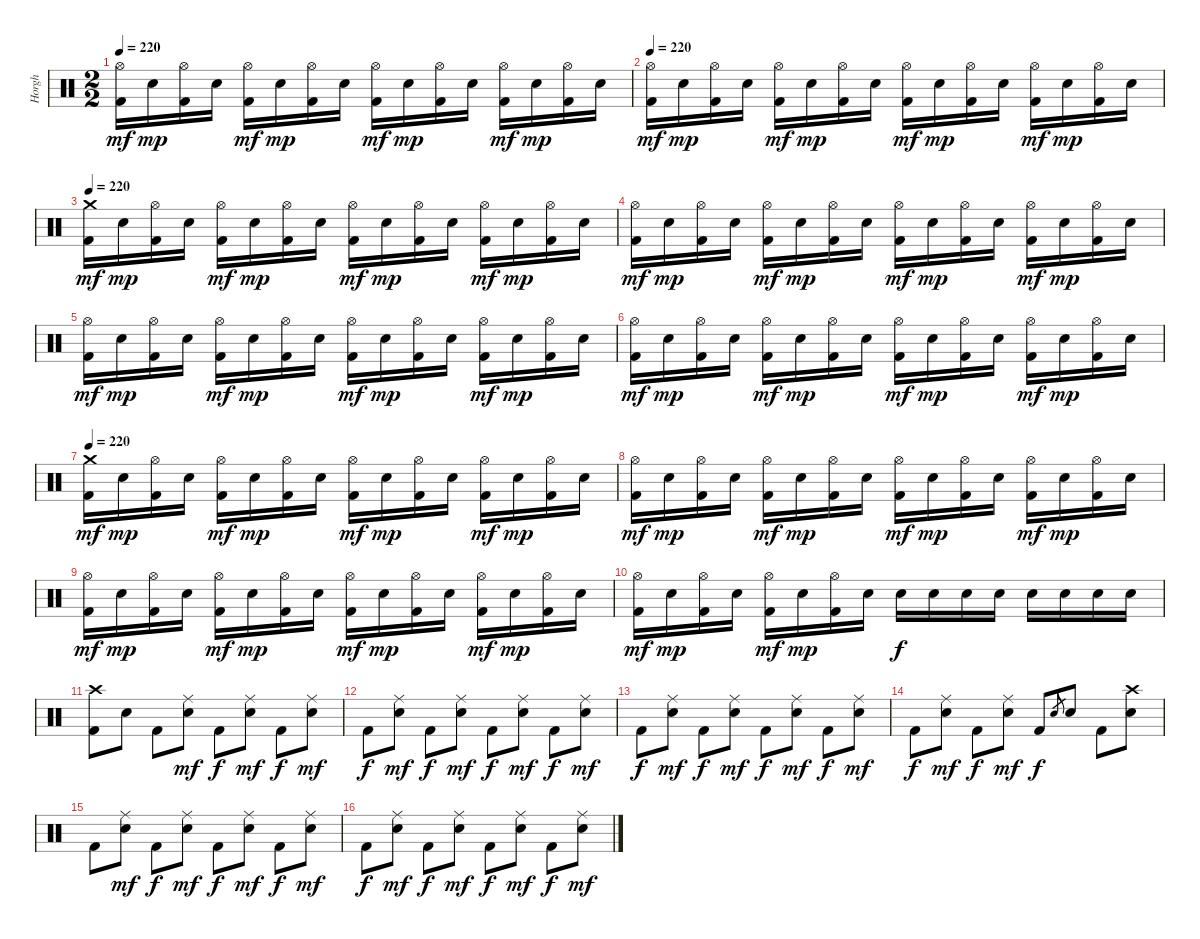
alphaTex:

\track ("Horgh" "Horgh") {instrument percussion}
\staff {score}
\articulation defaults
\ts (2 2)
\tempo 220
\clef neutral
\ks c
("Hi-Hat (open)" "Kick (hit) 2").16{dy mf} "Electric Snare (hit)".16{dy mp} ("Hi-Hat (open)" "Kick (hit) 2").16 "Electric Snare (hit)".16 ("Hi-Hat (open)" "Kick (hit) 2").16{dy mf} "Electric Snare (hit)".16{dy mp} ("Hi-Hat (open)" "Kick (hit) 2").16 "Electric Snare (hit)".16 ("Hi-Hat (open)" "Kick (hit) 2").16{dy mf} "Electric Snare (hit)".16{dy mp} ("Hi-Hat (open)" "Kick (hit) 2").16 "Electric Snare (hit)".16 ("Hi-Hat (open)" "Kick (hit) 2").16{dy mf} "Electric Snare (hit)".16{dy mp} ("Hi-Hat (open)" "Kick (hit) 2").16 "Electric Snare (hit)".16 |
\tempo 220
("Hi-Hat (open)" "Kick (hit) 2").16{dy mf} "Electric Snare (hit)".16{dy mp} ("Hi-Hat (open)" "Kick (hit) 2").16 "Electric Snare (hit)".16 ("Hi-Hat (open)" "Kick (hit) 2").16{dy mf} "Electric Snare (hit)".16{dy mp} ("Hi-Hat (open)" "Kick (hit) 2").16 "Electric Snare (hit)".16 ("Hi-Hat (open)" "Kick (hit) 2").16{dy mf} "Electric Snare (hit)".16{dy mp} ("Hi-Hat (open)" "Kick (hit) 2").16 "Electric Snare (hit)".16 ("Hi-Hat (open)" "Kick (hit) 2").16{dy mf} "Electric Snare (hit)".16{dy mp} ("Hi-Hat (open)" "Kick (hit) 2").16 "Electric Snare (hit)".16 |
\tempo 220
("Crash medium (hit)" "Kick (hit) 2").16{dy mf} "Electric Snare (hit)".16{dy mp} ("Hi-Hat (open)" "Kick (hit) 2").16 "Electric Snare (hit)".16 ("Hi-Hat (open)" "Kick (hit) 2").16{dy mf} "Electric Snare (hit)".16{dy mp} ("Hi-Hat (open)" "Kick (hit) 2").16 "Electric Snare (hit)".16 ("Hi-Hat (open)" "Kick (hit) 2").16{dy mf} "Electric Snare (hit)".16{dy mp} ("Hi-Hat (open)" "Kick (hit) 2").16 "Electric Snare (hit)".16 ("Hi-Hat (open)" "Kick (hit) 2").16{dy mf} "Electric Snare (hit)".16{dy mp} ("Hi-Hat (open)" "Kick (hit) 2").16 "Electric Snare (hit)".16 |
("Hi-Hat (open)" "Kick (hit) 2").16{dy mf} "Electric Snare (hit)".16{dy mp} ("Hi-Hat (open)" "Kick (hit) 2").16 "Electric Snare (hit)".16 ("Hi-Hat (open)" "Kick (hit) 2").16{dy mf} "Electric Snare (hit)".16{dy mp} ("Hi-Hat (open)" "Kick (hit) 2").16 "Electric Snare (hit)".16 ("Hi-Hat (open)" "Kick (hit) 2").16{dy mf} "Electric Snare (hit)".16{dy mp} ("Hi-Hat (open)" "Kick (hit) 2").16 "Electric Snare (hit)".16 ("Hi-Hat (open)" "Kick (hit) 2").16{dy mf} "Electric Snare (hit)".16{dy mp} ("Hi-Hat (open)" "Kick (hit) 2").16 "Electric Snare (hit)".16 |
("Hi-Hat (open)" "Kick (hit) 2").16{dy mf} "Electric Snare (hit)".16{dy mp} ("Hi-Hat (open)" "Kick (hit) 2").16 "Electric Snare (hit)".16 ("Hi-Hat (open)" "Kick (hit) 2").16{dy mf} "Electric Snare (hit)".16{dy mp} ("Hi-Hat (open)" "Kick (hit) 2").16 "Electric Snare (hit)".16 ("Hi-Hat (open)" "Kick (hit) 2").16{dy mf} "Electric Snare (hit)".16{dy mp} ("Hi-Hat (open)" "Kick (hit) 2").16 "Electric Snare (hit)".16 ("Hi-Hat (open)" "Kick (hit) 2").16{dy mf} "Electric Snare (hit)".16{dy mp} ("Hi-Hat (open)" "Kick (hit) 2").16 "Electric Snare (hit)".16 |
("Hi-Hat (open)" "Kick (hit) 2").16{dy mf} "Electric Snare (hit)".16{dy mp} ("Hi-Hat (open)" "Kick (hit) 2").16 "Electric Snare (hit)".16 ("Hi-Hat (open)" "Kick (hit) 2").16{dy mf} "Electric Snare (hit)".16{dy mp} ("Hi-Hat (open)" "Kick (hit) 2").16 "Electric Snare (hit)".16 ("Hi-Hat (open)" "Kick (hit) 2").16{dy mf} "Electric Snare (hit)".16{dy mp} ("Hi-Hat (open)" "Kick (hit) 2").16 "Electric Snare (hit)".16 ("Hi-Hat (open)" "Kick (hit) 2").16{dy mf} "Electric Snare (hit)".16{dy mp} ("Hi-Hat (open)" "Kick (hit) 2").16 "Electric Snare (hit)".16 |
\tempo 220
("Crash medium (hit)" "Kick (hit) 2").16{dy mf} "Electric Snare (hit)".16{dy mp} ("Hi-Hat (open)" "Kick (hit) 2").16 "Electric Snare (hit)".16 ("Hi-Hat (open)" "Kick (hit) 2").16{dy mf} "Electric Snare (hit)".16{dy mp} ("Hi-Hat (open)" "Kick (hit) 2").16 "Electric Snare (hit)".16 ("Hi-Hat (open)" "Kick (hit) 2").16{dy mf} "Electric Snare (hit)".16{dy mp} ("Hi-Hat (open)" "Kick (hit) 2").16 "Electric Snare (hit)".16 ("Hi-Hat (open)" "Kick (hit) 2").16{dy mf} "Electric Snare (hit)".16{dy mp} ("Hi-Hat (open)" "Kick (hit) 2").16 "Electric Snare (hit)".16 |
("Hi-Hat (open)" "Kick (hit) 2").16{dy mf} "Electric Snare (hit)".16{dy mp} ("Hi-Hat (open)" "Kick (hit) 2").16 "Electric Snare (hit)".16 ("Hi-Hat (open)" "Kick (hit) 2").16{dy mf} "Electric Snare (hit)".16{dy mp} ("Hi-Hat (open)" "Kick (hit) 2").16 "Electric Snare (hit)".16 ("Hi-Hat (open)" "Kick (hit) 2").16{dy mf} "Electric Snare (hit)".16{dy mp} ("Hi-Hat (open)" "Kick (hit) 2").16 "Electric Snare (hit)".16 ("Hi-Hat (open)" "Kick (hit) 2").16{dy mf} "Electric Snare (hit)".16{dy mp} ("Hi-Hat (open)" "Kick (hit) 2").16 "Electric Snare (hit)".16 |
("Hi-Hat (open)" "Kick (hit) 2").16{dy mf} "Electric Snare (hit)".16{dy mp} ("Hi-Hat (open)" "Kick (hit) 2").16 "Electric Snare (hit)".16 ("Hi-Hat (open)" "Kick (hit) 2").16{dy mf} "Electric Snare (hit)".16{dy mp} ("Hi-Hat (open)" "Kick (hit) 2").16 "Electric Snare (hit)".16 ("Hi-Hat (open)" "Kick (hit) 2").16{dy mf} "Electric Snare (hit)".16{dy mp} ("Hi-Hat (open)" "Kick (hit) 2").16 "Electric Snare (hit)".16 ("Hi-Hat (open)" "Kick (hit) 2").16{dy mf} "Electric Snare (hit)".16{dy mp} ("Hi-Hat (open)" "Kick (hit) 2").16 "Electric Snare (hit)".16 |
("Hi-Hat (open)" "Kick (hit) 2").16{dy mf} "Electric Snare (hit)".16{dy mp} ("Hi-Hat (open)" "Kick (hit) 2").16 "Electric Snare (hit)".16 ("Hi-Hat (open)" "Kick (hit) 2").16{dy mf} "Electric Snare (hit)".16{dy mp} ("Hi-Hat (open)" "Kick (hit) 2").16 "Electric Snare (hit)".16 "Electric Snare (hit)".16{dy f} "Electric Snare (hit)".16 "Electric Snare (hit)".16 "Electric Snare (hit)".16 "Electric Snare (hit)".16 "Electric Snare (hit)".16 "Electric Snare (hit)".16 "Electric Snare (hit)".16 |
("Crash high (hit)" "Kick (hit) 2").8 "Electric Snare (hit)".8 "Kick (hit) 2".8 ("Ride (middle)" "Electric Snare (hit)").8{dy mf} "Kick (hit) 2".8{dy f} ("Ride (middle)" "Electric Snare (hit)").8{dy mf} "Kick (hit) 2".8{dy f} ("Ride (middle)" "Electric Snare (hit)").8{dy mf} |
"Kick (hit) 2".8{dy f} ("Ride (middle)" "Electric Snare (hit)").8{dy mf} "Kick (hit) 2".8{dy f} ("Ride (middle)" "Electric Snare (hit)").8{dy mf} "Kick (hit) 2".8{dy f} ("Ride (middle)" "Electric Snare (hit)").8{dy mf} "Kick (hit) 2".8{dy f} ("Ride (middle)" "Electric Snare (hit)").8{dy mf} |
"Kick (hit) 2".8{dy f} ("Ride (middle)" "Electric Snare (hit)").8{dy mf} "Kick (hit) 2".8{dy f} ("Ride (middle)" "Electric Snare (hit)").8{dy mf} "Kick (hit) 2".8{dy f} ("Ride (middle)" "Electric Snare (hit)").8{dy mf} "Kick (hit) 2".8{dy f} ("Ride (middle)" "Electric Snare (hit)").8{dy mf} |
"Kick (hit) 2".8{dy f} ("Ride (middle)" "Electric Snare (hit)").8{dy mf} "Kick (hit) 2".8{dy f} ("Ride (middle)" "Electric Snare (hit)").8{dy mf} "Kick (hit) 2".8{dy f} "Electric Snare (hit)".8{gr} "Electric Snare (hit)".8 "Kick (hit) 2".8 ("Crash high (hit)" "Electric Snare (hit)").8 |
"Kick (hit) 2".8 ("Ride (middle)" "Electric Snare (hit)").8{dy mf} "Kick (hit) 2".8{dy f} ("Ride (middle)" "Electric Snare (hit)").8{dy mf} "Kick (hit) 2".8{dy f} ("Ride (middle)" "Electric Snare (hit)").8{dy mf} "Kick (hit) 2".8{dy f} ("Ride (middle)" "Electric Snare (hit)").8{dy mf} |
"Kick (hit) 2".8{dy f} ("Ride (middle)" "Electric Snare (hit)").8{dy mf} "Kick (hit) 2".8{dy f} ("Ride (middle)" "Electric Snare (hit)").8{dy mf} "Kick (hit) 2".8{dy f} ("Ride (middle)" "Electric Snare (hit)").8{dy mf} "Kick (hit) 2".8{dy f} ("Ride (middle)" "Electric Snare (hit)").8{dy mf}
